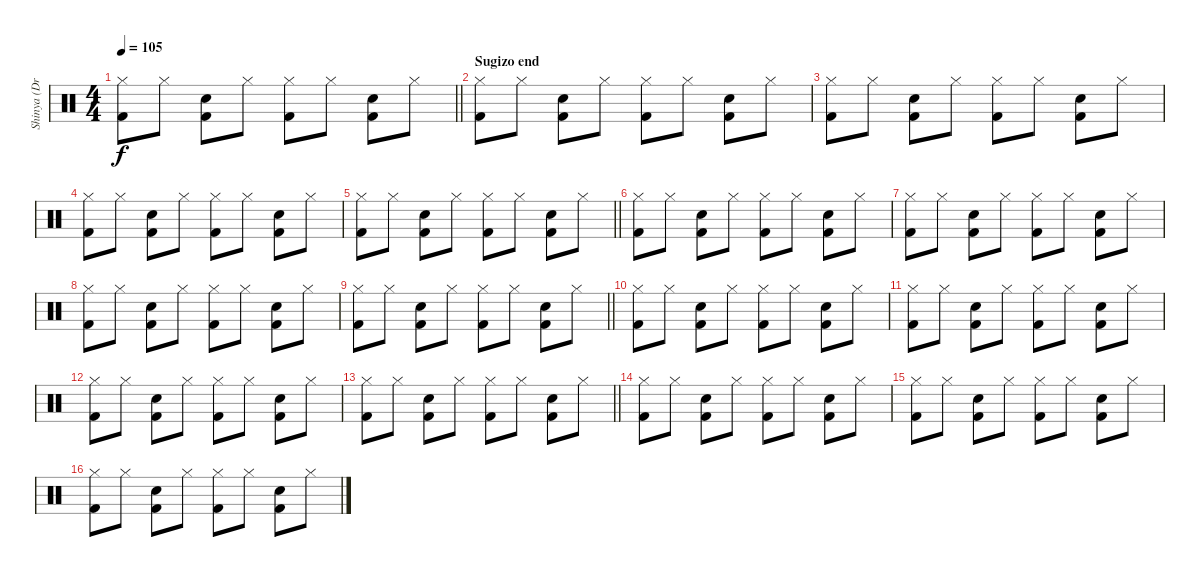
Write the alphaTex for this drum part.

\track ("Shinya (Drums)" "Shinya (Dr") {instrument percussion}
\staff {score}
\articulation defaults
\ts (4 4)
\tempo 105
\clef neutral
\barLineRight lightlight
\ks c
("Hi-Hat (closed)" "Kick (hit) 2").8{dy f} "Hi-Hat (closed)".8 ("Snare (hit) 2" "Kick (hit) 2").8 "Hi-Hat (closed)".8 ("Hi-Hat (closed)" "Kick (hit) 2").8 "Hi-Hat (closed)".8 ("Snare (hit) 2" "Kick (hit) 2").8 "Hi-Hat (closed)".8 |
\section ("" "Sugizo end")
("Hi-Hat (closed)" "Kick (hit) 2").8 "Hi-Hat (closed)".8 ("Snare (hit) 2" "Kick (hit) 2").8 "Hi-Hat (closed)".8 ("Hi-Hat (closed)" "Kick (hit) 2").8 "Hi-Hat (closed)".8 ("Snare (hit) 2" "Kick (hit) 2").8 "Hi-Hat (closed)".8 |
("Hi-Hat (closed)" "Kick (hit) 2").8 "Hi-Hat (closed)".8 ("Snare (hit) 2" "Kick (hit) 2").8 "Hi-Hat (closed)".8 ("Hi-Hat (closed)" "Kick (hit) 2").8 "Hi-Hat (closed)".8 ("Snare (hit) 2" "Kick (hit) 2").8 "Hi-Hat (closed)".8 |
("Hi-Hat (closed)" "Kick (hit) 2").8 "Hi-Hat (closed)".8 ("Snare (hit) 2" "Kick (hit) 2").8 "Hi-Hat (closed)".8 ("Hi-Hat (closed)" "Kick (hit) 2").8 "Hi-Hat (closed)".8 ("Snare (hit) 2" "Kick (hit) 2").8 "Hi-Hat (closed)".8 |
\barLineRight lightlight
("Hi-Hat (closed)" "Kick (hit) 2").8 "Hi-Hat (closed)".8 ("Snare (hit) 2" "Kick (hit) 2").8 "Hi-Hat (closed)".8 ("Hi-Hat (closed)" "Kick (hit) 2").8 "Hi-Hat (closed)".8 ("Snare (hit) 2" "Kick (hit) 2").8 "Hi-Hat (closed)".8 |
("Hi-Hat (closed)" "Kick (hit) 2").8 "Hi-Hat (closed)".8 ("Snare (hit) 2" "Kick (hit) 2").8 "Hi-Hat (closed)".8 ("Hi-Hat (closed)" "Kick (hit) 2").8 "Hi-Hat (closed)".8 ("Snare (hit) 2" "Kick (hit) 2").8 "Hi-Hat (closed)".8 |
("Hi-Hat (closed)" "Kick (hit) 2").8 "Hi-Hat (closed)".8 ("Snare (hit) 2" "Kick (hit) 2").8 "Hi-Hat (closed)".8 ("Hi-Hat (closed)" "Kick (hit) 2").8 "Hi-Hat (closed)".8 ("Snare (hit) 2" "Kick (hit) 2").8 "Hi-Hat (closed)".8 |
("Hi-Hat (closed)" "Kick (hit) 2").8 "Hi-Hat (closed)".8 ("Snare (hit) 2" "Kick (hit) 2").8 "Hi-Hat (closed)".8 ("Hi-Hat (closed)" "Kick (hit) 2").8 "Hi-Hat (closed)".8 ("Snare (hit) 2" "Kick (hit) 2").8 "Hi-Hat (closed)".8 |
\barLineRight lightlight
("Hi-Hat (closed)" "Kick (hit) 2").8 "Hi-Hat (closed)".8 ("Snare (hit) 2" "Kick (hit) 2").8 "Hi-Hat (closed)".8 ("Hi-Hat (closed)" "Kick (hit) 2").8 "Hi-Hat (closed)".8 ("Snare (hit) 2" "Kick (hit) 2").8 "Hi-Hat (closed)".8 |
("Hi-Hat (closed)" "Kick (hit) 2").8 "Hi-Hat (closed)".8 ("Snare (hit) 2" "Kick (hit) 2").8 "Hi-Hat (closed)".8 ("Hi-Hat (closed)" "Kick (hit) 2").8 "Hi-Hat (closed)".8 ("Snare (hit) 2" "Kick (hit) 2").8 "Hi-Hat (closed)".8 |
("Hi-Hat (closed)" "Kick (hit) 2").8 "Hi-Hat (closed)".8 ("Snare (hit) 2" "Kick (hit) 2").8 "Hi-Hat (closed)".8 ("Hi-Hat (closed)" "Kick (hit) 2").8 "Hi-Hat (closed)".8 ("Snare (hit) 2" "Kick (hit) 2").8 "Hi-Hat (closed)".8 |
("Hi-Hat (closed)" "Kick (hit) 2").8 "Hi-Hat (closed)".8 ("Snare (hit) 2" "Kick (hit) 2").8 "Hi-Hat (closed)".8 ("Hi-Hat (closed)" "Kick (hit) 2").8 "Hi-Hat (closed)".8 ("Snare (hit) 2" "Kick (hit) 2").8 "Hi-Hat (closed)".8 |
\barLineRight lightlight
("Hi-Hat (closed)" "Kick (hit) 2").8 "Hi-Hat (closed)".8 ("Snare (hit) 2" "Kick (hit) 2").8 "Hi-Hat (closed)".8 ("Hi-Hat (closed)" "Kick (hit) 2").8 "Hi-Hat (closed)".8 ("Snare (hit) 2" "Kick (hit) 2").8 "Hi-Hat (closed)".8 |
("Hi-Hat (closed)" "Kick (hit) 2").8 "Hi-Hat (closed)".8 ("Snare (hit) 2" "Kick (hit) 2").8 "Hi-Hat (closed)".8 ("Hi-Hat (closed)" "Kick (hit) 2").8 "Hi-Hat (closed)".8 ("Snare (hit) 2" "Kick (hit) 2").8 "Hi-Hat (closed)".8 |
("Hi-Hat (closed)" "Kick (hit) 2").8 "Hi-Hat (closed)".8 ("Snare (hit) 2" "Kick (hit) 2").8 "Hi-Hat (closed)".8 ("Hi-Hat (closed)" "Kick (hit) 2").8 "Hi-Hat (closed)".8 ("Snare (hit) 2" "Kick (hit) 2").8 "Hi-Hat (closed)".8 |
("Hi-Hat (closed)" "Kick (hit) 2").8 "Hi-Hat (closed)".8 ("Snare (hit) 2" "Kick (hit) 2").8 "Hi-Hat (closed)".8 ("Hi-Hat (closed)" "Kick (hit) 2").8 "Hi-Hat (closed)".8 ("Snare (hit) 2" "Kick (hit) 2").8 "Hi-Hat (closed)".8
